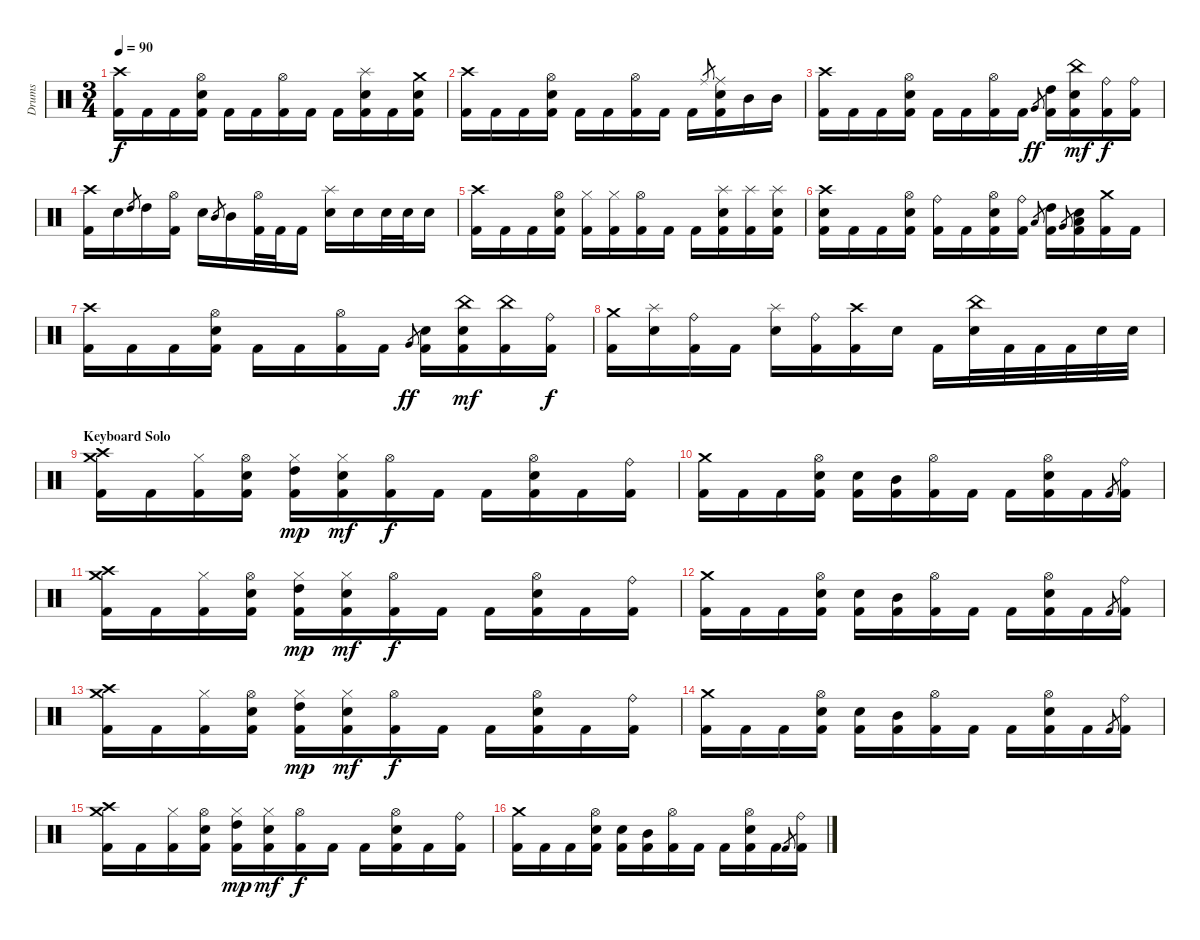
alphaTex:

\track ("Drums" "Drums") {instrument percussion}
\staff {score}
\articulation defaults
\ts (3 4)
\tempo 90
\clef neutral
\ks c
("Crash high (hit)" "Kick (hit) 2").16{dy f} "Kick (hit) 2".16 "Kick (hit) 2".16 ("Hi-Hat (open)" "Snare (hit) 2" "Kick (hit) 2").16 "Kick (hit) 2".16 "Kick (hit) 2".16 ("Hi-Hat (open)" "Kick (hit) 2").16 "Kick (hit) 2".16 "Kick (hit) 2".16 ("Splash (hit)" "Snare (hit) 2" "Kick (hit) 2").16 "Kick (hit) 2".16 ("Crash medium (hit)" "Snare (hit) 2" "Kick (hit) 2").16 |
("Crash high (hit)" "Kick (hit) 2").16 "Kick (hit) 2".16 "Kick (hit) 2".16 ("Hi-Hat (open)" "Snare (hit) 2" "Kick (hit) 2").16 "Kick (hit) 2".16 "Kick (hit) 2".16 ("Hi-Hat (open)" "Kick (hit) 2").16 "Kick (hit) 2".16 "Kick (hit) 2".16 "Ride (middle)".8{gr} ("Ride (middle)" "Snare (hit) 2" "Kick (hit) 2").16 "Mid Tom (hit)".16 "Mid Tom (hit)".16 |
("Crash high (hit)" "Kick (hit) 2").16 "Kick (hit) 2".16 "Kick (hit) 2".16 ("Hi-Hat (open)" "Snare (hit) 2" "Kick (hit) 2").16 "Kick (hit) 2".16 "Kick (hit) 2".16 ("Hi-Hat (open)" "Kick (hit) 2").16 "Kick (hit) 2".16 "Very Low Tom (hit)".8{gr dy ff} ("High Tom (hit)" "Kick (hit) 2").16 ("China (hit)" "Snare (hit) 2" "Kick (hit) 2").16{dy mf} ("Ride (bell)" "Kick (hit) 2").16{dy f} ("Ride (bell)" "Kick (hit) 2").16 |
("Crash high (hit)" "Kick (hit) 2").16 "Snare (hit) 2".16 "High Tom (hit)".8{gr} "High Tom (hit)".16 ("Hi-Hat (open)" "Kick (hit) 2").16 "Snare (hit) 2".16 "Mid Tom (hit)".8{gr} "Mid Tom (hit)".16 ("Hi-Hat (open)" "Kick (hit) 2").32 "Kick (hit) 2".32 "Kick (hit) 2".16 ("Splash (hit)" "Snare (hit) 2").16 "Snare (hit) 2".16 "Snare (hit) 2".32 "Snare (hit) 2".32 "Snare (hit) 2".16 |
("Crash high (hit)" "Kick (hit) 2").16 "Kick (hit) 2".16 "Kick (hit) 2".16 ("Hi-Hat (open)" "Snare (hit) 2" "Kick (hit) 2").16 ("Hi-Hat (closed)" "Kick (hit) 2").16 ("Hi-Hat (closed)" "Kick (hit) 2").16 ("Hi-Hat (open)" "Kick (hit) 2").16 "Kick (hit) 2".16 "Kick (hit) 2".16 ("Splash (hit)" "Snare (hit) 2" "Kick (hit) 2").16 ("Splash (hit)" "Kick (hit) 2").16 ("Splash (hit)" "Snare (hit) 2" "Kick (hit) 2").16 |
("Crash high (hit)" "Snare (hit) 2" "Kick (hit) 2").16 "Kick (hit) 2".16 "Kick (hit) 2".16 ("Hi-Hat (open)" "Snare (hit) 2" "Kick (hit) 2").16 ("Ride (bell)" "Kick (hit) 2").16 "Kick (hit) 2".16 ("Hi-Hat (open)" "Snare (hit) 2" "Kick (hit) 2").16 ("Ride (bell)" "Kick (hit) 2").16 "Low Tom (hit)".8{gr} ("High Tom (hit)" "Kick (hit) 2").16 "Very Low Tom (hit)".8{gr} ("Low Tom (hit)" "Snare (hit) 2" "Kick (hit) 2").16 ("Crash medium (hit)" "Kick (hit) 2").16 "Kick (hit) 2".16 |
("Crash high (hit)" "Kick (hit) 2").16 "Kick (hit) 2".16 "Kick (hit) 2".16 ("Hi-Hat (open)" "Snare (hit) 2" "Kick (hit) 2").16 "Kick (hit) 2".16 "Kick (hit) 2".16 ("Hi-Hat (open)" "Kick (hit) 2").16 "Kick (hit) 2".16 "Very Low Tom (hit)".8{gr dy ff} ("Snare (hit) 2" "Kick (hit) 2").16 ("China (hit)" "Snare (hit) 2" "Kick (hit) 2").16{dy mf} ("China (hit)" "Kick (hit) 2").16 ("Ride (bell)" "Kick (hit) 2").16{dy f} |
("Crash medium (hit)" "Kick (hit) 2").16 ("Splash (hit)" "Snare (hit) 2").16 ("Ride (bell)" "Kick (hit) 2").16 "Kick (hit) 2".16 ("Splash (hit)" "Snare (hit) 2").16 ("Ride (bell)" "Kick (hit) 2").16 ("Crash high (hit)" "Kick (hit) 2").16 "Snare (hit) 2".16 "Kick (hit) 2".16 ("China (hit)" "Snare (hit) 2").32 "Kick (hit) 2".32 "Kick (hit) 2".32 "Kick (hit) 2".32 "Snare (hit) 2".32 "Snare (hit) 2".32 |
\section ("" "Keyboard Solo")
("Crash high (hit)" "Crash medium (hit)" "Kick (hit) 2").16 "Kick (hit) 2".16 ("Hi-Hat (closed)" "Kick (hit) 2").16 ("Hi-Hat (open)" "Snare (hit) 2" "Kick (hit) 2").16 ("Hi-Hat (closed)" "High Tom (hit)" "Kick (hit) 2").16{dy mp} ("Hi-Hat (closed)" "Snare (hit) 2" "Kick (hit) 2").16{dy mf} ("Hi-Hat (open)" "Kick (hit) 2").16{dy f} "Kick (hit) 2".16 "Kick (hit) 2".16 ("Hi-Hat (open)" "Snare (hit) 2" "Kick (hit) 2").16 "Kick (hit) 2".16 ("Ride (bell)" "Kick (hit) 2").16 |
("Crash medium (hit)" "Kick (hit) 2").16 "Kick (hit) 2".16 "Kick (hit) 2".16 ("Hi-Hat (open)" "Snare (hit) 2" "Kick (hit) 2").16 ("Snare (hit) 2" "Kick (hit) 2").16 ("Mid Tom (hit)" "Kick (hit) 2").16 ("Hi-Hat (open)" "Kick (hit) 2").16 "Kick (hit) 2".16 "Kick (hit) 2".16 ("Hi-Hat (open)" "Snare (hit) 2" "Kick (hit) 2").16 "Kick (hit) 2".16 "Kick (hit) 2".8{gr} ("Ride (bell)" "Kick (hit) 2").16 |
("Crash high (hit)" "Crash medium (hit)" "Kick (hit) 2").16 "Kick (hit) 2".16 ("Hi-Hat (closed)" "Kick (hit) 2").16 ("Hi-Hat (open)" "Snare (hit) 2" "Kick (hit) 2").16 ("Hi-Hat (closed)" "High Tom (hit)" "Kick (hit) 2").16{dy mp} ("Hi-Hat (closed)" "Snare (hit) 2" "Kick (hit) 2").16{dy mf} ("Hi-Hat (open)" "Kick (hit) 2").16{dy f} "Kick (hit) 2".16 "Kick (hit) 2".16 ("Hi-Hat (open)" "Snare (hit) 2" "Kick (hit) 2").16 "Kick (hit) 2".16 ("Ride (bell)" "Kick (hit) 2").16 |
("Crash medium (hit)" "Kick (hit) 2").16 "Kick (hit) 2".16 "Kick (hit) 2".16 ("Hi-Hat (open)" "Snare (hit) 2" "Kick (hit) 2").16 ("Snare (hit) 2" "Kick (hit) 2").16 ("Mid Tom (hit)" "Kick (hit) 2").16 ("Hi-Hat (open)" "Kick (hit) 2").16 "Kick (hit) 2".16 "Kick (hit) 2".16 ("Hi-Hat (open)" "Snare (hit) 2" "Kick (hit) 2").16 "Kick (hit) 2".16 "Kick (hit) 2".8{gr} ("Ride (bell)" "Kick (hit) 2").16 |
("Crash high (hit)" "Crash medium (hit)" "Kick (hit) 2").16 "Kick (hit) 2".16 ("Hi-Hat (closed)" "Kick (hit) 2").16 ("Hi-Hat (open)" "Snare (hit) 2" "Kick (hit) 2").16 ("Hi-Hat (closed)" "High Tom (hit)" "Kick (hit) 2").16{dy mp} ("Hi-Hat (closed)" "Snare (hit) 2" "Kick (hit) 2").16{dy mf} ("Hi-Hat (open)" "Kick (hit) 2").16{dy f} "Kick (hit) 2".16 "Kick (hit) 2".16 ("Hi-Hat (open)" "Snare (hit) 2" "Kick (hit) 2").16 "Kick (hit) 2".16 ("Ride (bell)" "Kick (hit) 2").16 |
("Crash medium (hit)" "Kick (hit) 2").16 "Kick (hit) 2".16 "Kick (hit) 2".16 ("Hi-Hat (open)" "Snare (hit) 2" "Kick (hit) 2").16 ("Snare (hit) 2" "Kick (hit) 2").16 ("Mid Tom (hit)" "Kick (hit) 2").16 ("Hi-Hat (open)" "Kick (hit) 2").16 "Kick (hit) 2".16 "Kick (hit) 2".16 ("Hi-Hat (open)" "Snare (hit) 2" "Kick (hit) 2").16 "Kick (hit) 2".16 "Kick (hit) 2".8{gr} ("Ride (bell)" "Kick (hit) 2").16 |
("Crash high (hit)" "Crash medium (hit)" "Kick (hit) 2").16 "Kick (hit) 2".16 ("Hi-Hat (closed)" "Kick (hit) 2").16 ("Hi-Hat (open)" "Snare (hit) 2" "Kick (hit) 2").16 ("Hi-Hat (closed)" "High Tom (hit)" "Kick (hit) 2").16{dy mp} ("Hi-Hat (closed)" "Snare (hit) 2" "Kick (hit) 2").16{dy mf} ("Hi-Hat (open)" "Kick (hit) 2").16{dy f} "Kick (hit) 2".16 "Kick (hit) 2".16 ("Hi-Hat (open)" "Snare (hit) 2" "Kick (hit) 2").16 "Kick (hit) 2".16 ("Ride (bell)" "Kick (hit) 2").16 |
("Crash medium (hit)" "Kick (hit) 2").16 "Kick (hit) 2".16 "Kick (hit) 2".16 ("Hi-Hat (open)" "Snare (hit) 2" "Kick (hit) 2").16 ("Snare (hit) 2" "Kick (hit) 2").16 ("Mid Tom (hit)" "Kick (hit) 2").16 ("Hi-Hat (open)" "Kick (hit) 2").16 "Kick (hit) 2".16 "Kick (hit) 2".16 ("Hi-Hat (open)" "Snare (hit) 2" "Kick (hit) 2").16 "Kick (hit) 2".16 "Kick (hit) 2".8{gr} ("Ride (bell)" "Kick (hit) 2").16
